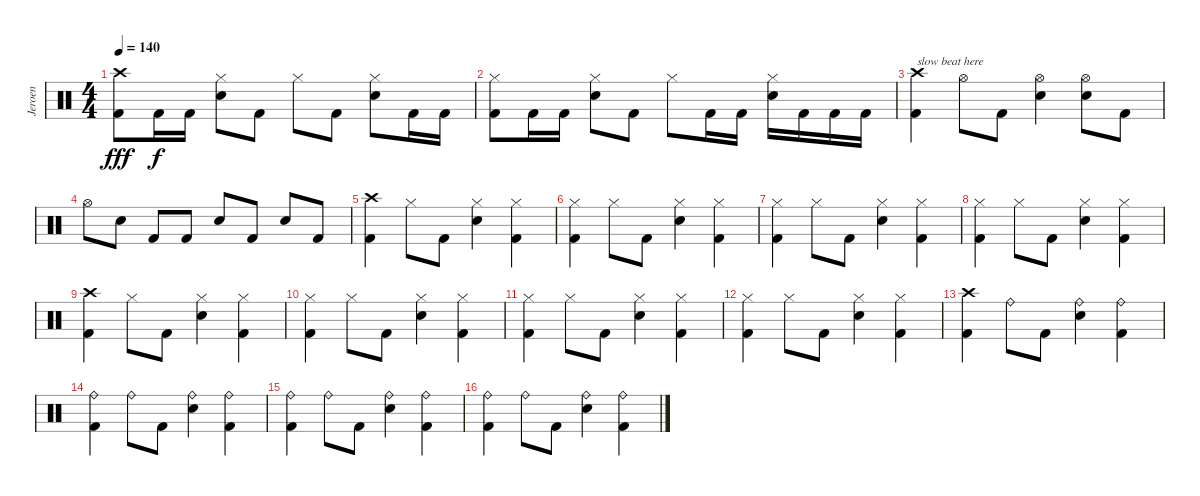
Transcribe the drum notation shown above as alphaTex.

\track ("Jeroen" "Jeroen") {instrument percussion}
\staff {score}
\articulation defaults
\ts (4 4)
\tempo 140
\clef neutral
\ks c
("Crash high (hit)" "Kick (hit) 2").8{dy fff} "Kick (hit) 2".16{dy f} "Kick (hit) 2".16 ("Hi-Hat (closed)" "Electric Snare (hit)").8 "Kick (hit) 2".8 "Hi-Hat (closed)".8 "Kick (hit) 2".8 ("Hi-Hat (closed)" "Electric Snare (hit)").8 "Kick (hit) 2".16 "Kick (hit) 2".16 |
("Hi-Hat (closed)" "Kick (hit) 2").8 "Kick (hit) 2".16 "Kick (hit) 2".16 ("Hi-Hat (closed)" "Electric Snare (hit)").8 "Kick (hit) 2".8 "Hi-Hat (closed)".8 "Kick (hit) 2".16 "Kick (hit) 2".16 ("Hi-Hat (closed)" "Electric Snare (hit)").16 "Kick (hit) 2".16 "Kick (hit) 2".16 "Kick (hit) 2".16 |
("Crash high (hit)" "Kick (hit) 2").4{txt "slow beat here"} "Hi-Hat (open)".8 "Kick (hit) 2".8 ("Hi-Hat (open)" "Electric Snare (hit)").4 ("Hi-Hat (open)" "Electric Snare (hit)").8 "Kick (hit) 2".8 |
"Hi-Hat (open)".8 "Electric Snare (hit)".8 "Kick (hit) 2".8 "Kick (hit) 2".8 "Electric Snare (hit)".8 "Kick (hit) 2".8 "Electric Snare (hit)".8 "Kick (hit) 2".8 |
("Crash high (hit)" "Kick (hit) 2").4 "Hi-Hat (closed)".8 "Kick (hit) 2".8 ("Hi-Hat (closed)" "Electric Snare (hit)").4 ("Hi-Hat (closed)" "Kick (hit) 2").4 |
("Hi-Hat (closed)" "Kick (hit) 2").4 "Hi-Hat (closed)".8 "Kick (hit) 2".8 ("Hi-Hat (closed)" "Electric Snare (hit)").4 ("Hi-Hat (closed)" "Kick (hit) 2").4 |
("Hi-Hat (closed)" "Kick (hit) 2").4 "Hi-Hat (closed)".8 "Kick (hit) 2".8 ("Hi-Hat (closed)" "Electric Snare (hit)").4 ("Hi-Hat (closed)" "Kick (hit) 2").4 |
("Hi-Hat (closed)" "Kick (hit) 2").4 "Hi-Hat (closed)".8 "Kick (hit) 2".8 ("Hi-Hat (closed)" "Electric Snare (hit)").4 ("Hi-Hat (closed)" "Kick (hit) 2").4 |
("Crash high (hit)" "Kick (hit) 2").4 "Hi-Hat (closed)".8 "Kick (hit) 2".8 ("Hi-Hat (closed)" "Electric Snare (hit)").4 ("Hi-Hat (closed)" "Kick (hit) 2").4 |
("Hi-Hat (closed)" "Kick (hit) 2").4 "Hi-Hat (closed)".8 "Kick (hit) 2".8 ("Hi-Hat (closed)" "Electric Snare (hit)").4 ("Hi-Hat (closed)" "Kick (hit) 2").4 |
("Hi-Hat (closed)" "Kick (hit) 2").4 "Hi-Hat (closed)".8 "Kick (hit) 2".8 ("Hi-Hat (closed)" "Electric Snare (hit)").4 ("Hi-Hat (closed)" "Kick (hit) 2").4 |
("Hi-Hat (closed)" "Kick (hit) 2").4 "Hi-Hat (closed)".8 "Kick (hit) 2".8 ("Hi-Hat (closed)" "Electric Snare (hit)").4 ("Hi-Hat (closed)" "Kick (hit) 2").4 |
("Crash high (hit)" "Kick (hit) 2").4 "Ride (bell)".8 "Kick (hit) 2".8 ("Ride (bell)" "Electric Snare (hit)").4 ("Ride (bell)" "Kick (hit) 2").4 |
("Ride (bell)" "Kick (hit) 2").4 "Ride (bell)".8 "Kick (hit) 2".8 ("Ride (bell)" "Electric Snare (hit)").4 ("Ride (bell)" "Kick (hit) 2").4 |
("Ride (bell)" "Kick (hit) 2").4 "Ride (bell)".8 "Kick (hit) 2".8 ("Ride (bell)" "Electric Snare (hit)").4 ("Ride (bell)" "Kick (hit) 2").4 |
("Ride (bell)" "Kick (hit) 2").4 "Ride (bell)".8 "Kick (hit) 2".8 ("Ride (bell)" "Electric Snare (hit)").4 ("Ride (bell)" "Kick (hit) 2").4
